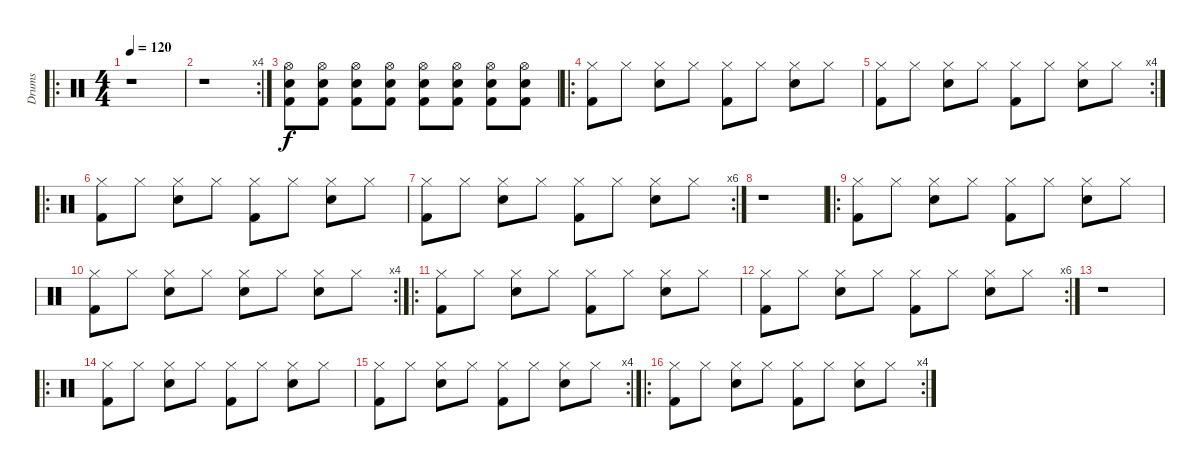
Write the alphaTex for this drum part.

\track ("Drums" "Drums") {instrument percussion}
\staff {score}
\articulation defaults
\ro
\ts (4 4)
\tempo 120
\clef neutral
\ks c
r.1{dy f} |
\rc 4
r.1 |
("Kick (hit) 2" "Snare (hit) 2" "Hi-Hat (open)").8 ("Kick (hit) 2" "Snare (hit) 2" "Hi-Hat (open)").8 ("Kick (hit) 2" "Snare (hit) 2" "Hi-Hat (open)").8 ("Kick (hit) 2" "Snare (hit) 2" "Hi-Hat (open)").8 ("Kick (hit) 2" "Snare (hit) 2" "Hi-Hat (open)").8 ("Kick (hit) 2" "Snare (hit) 2" "Hi-Hat (open)").8 ("Kick (hit) 2" "Snare (hit) 2" "Hi-Hat (open)").8 ("Kick (hit) 2" "Snare (hit) 2" "Hi-Hat (open)").8 |
\ro
("Kick (hit) 2" "Hi-Hat (closed)").8 "Hi-Hat (closed)".8 ("Snare (hit) 2" "Hi-Hat (closed)").8 "Hi-Hat (closed)".8 ("Kick (hit) 2" "Hi-Hat (closed)").8 "Hi-Hat (closed)".8 ("Snare (hit) 2" "Hi-Hat (closed)").8 "Hi-Hat (closed)".8 |
\rc 4
("Kick (hit) 2" "Hi-Hat (closed)").8 "Hi-Hat (closed)".8 ("Snare (hit) 2" "Hi-Hat (closed)").8 "Hi-Hat (closed)".8 ("Kick (hit) 2" "Hi-Hat (closed)").8 "Hi-Hat (closed)".8 ("Snare (hit) 2" "Hi-Hat (closed)").8 "Hi-Hat (closed)".8 |
\ro
("Kick (hit) 2" "Hi-Hat (closed)").8 "Hi-Hat (closed)".8 ("Snare (hit) 2" "Hi-Hat (closed)").8 "Hi-Hat (closed)".8 ("Kick (hit) 2" "Hi-Hat (closed)").8 "Hi-Hat (closed)".8 ("Snare (hit) 2" "Hi-Hat (closed)").8 "Hi-Hat (closed)".8 |
\rc 6
("Kick (hit) 2" "Hi-Hat (closed)").8 "Hi-Hat (closed)".8 ("Snare (hit) 2" "Hi-Hat (closed)").8 "Hi-Hat (closed)".8 ("Kick (hit) 2" "Hi-Hat (closed)").8 "Hi-Hat (closed)".8 ("Snare (hit) 2" "Hi-Hat (closed)").8 "Hi-Hat (closed)".8 |
r.1 |
\ro
("Kick (hit) 2" "Hi-Hat (closed)").8 "Hi-Hat (closed)".8 ("Snare (hit) 2" "Hi-Hat (closed)").8 "Hi-Hat (closed)".8 ("Kick (hit) 2" "Hi-Hat (closed)").8 "Hi-Hat (closed)".8 ("Snare (hit) 2" "Hi-Hat (closed)").8 "Hi-Hat (closed)".8 |
\rc 4
("Kick (hit) 2" "Hi-Hat (closed)").8 "Hi-Hat (closed)".8 ("Snare (hit) 2" "Hi-Hat (closed)").8 "Hi-Hat (closed)".8 ("Snare (hit) 2" "Hi-Hat (closed)").8 "Hi-Hat (closed)".8 ("Snare (hit) 2" "Hi-Hat (closed)").8 "Hi-Hat (closed)".8 |
\ro
("Kick (hit) 2" "Hi-Hat (closed)").8 "Hi-Hat (closed)".8 ("Snare (hit) 2" "Hi-Hat (closed)").8 "Hi-Hat (closed)".8 ("Kick (hit) 2" "Hi-Hat (closed)").8 "Hi-Hat (closed)".8 ("Snare (hit) 2" "Hi-Hat (closed)").8 "Hi-Hat (closed)".8 |
\rc 6
("Kick (hit) 2" "Hi-Hat (closed)").8 "Hi-Hat (closed)".8 ("Snare (hit) 2" "Hi-Hat (closed)").8 "Hi-Hat (closed)".8 ("Kick (hit) 2" "Hi-Hat (closed)").8 "Hi-Hat (closed)".8 ("Snare (hit) 2" "Hi-Hat (closed)").8 "Hi-Hat (closed)".8 |
r.1 |
\ro
("Kick (hit) 2" "Hi-Hat (closed)").8 "Hi-Hat (closed)".8 ("Snare (hit) 2" "Hi-Hat (closed)").8 "Hi-Hat (closed)".8 ("Kick (hit) 2" "Hi-Hat (closed)").8 "Hi-Hat (closed)".8 ("Snare (hit) 2" "Hi-Hat (closed)").8 "Hi-Hat (closed)".8 |
\rc 4
("Kick (hit) 2" "Hi-Hat (closed)").8 "Hi-Hat (closed)".8 ("Snare (hit) 2" "Hi-Hat (closed)").8 "Hi-Hat (closed)".8 ("Kick (hit) 2" "Hi-Hat (closed)").8 "Hi-Hat (closed)".8 ("Snare (hit) 2" "Hi-Hat (closed)").8 "Hi-Hat (closed)".8 |
\ro
\rc 4
("Kick (hit) 2" "Hi-Hat (closed)").8 "Hi-Hat (closed)".8 ("Snare (hit) 2" "Hi-Hat (closed)").8 "Hi-Hat (closed)".8 ("Kick (hit) 2" "Hi-Hat (closed)").8 "Hi-Hat (closed)".8 ("Snare (hit) 2" "Hi-Hat (closed)").8 "Hi-Hat (closed)".8
